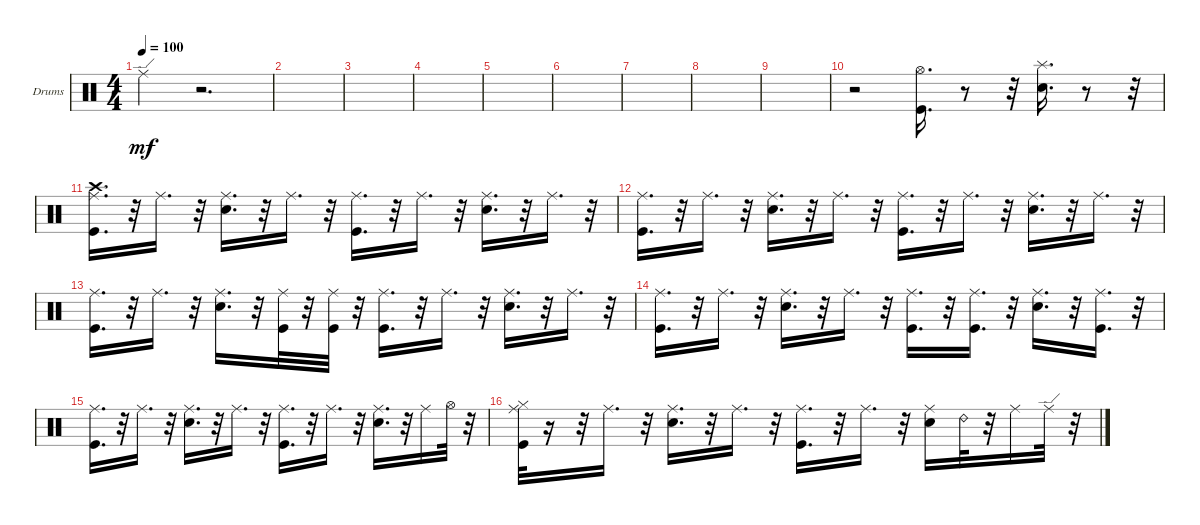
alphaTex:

\bracketExtendMode groupsimilarinstruments
\firstSystemTrackNameOrientation horizontal
\otherSystemsTrackNameOrientation horizontal
\track ("Drums" "Drums") {instrument percussion}
\staff {score}
\articulation defaults
\ts (4 4)
\tempo 100
\clef neutral
\ks c "Ride (edge)"{t}.4{dy mf}
r.2{d} |
|
|
|
|
|
|
|
|
r.2 ("Hi-Hat (open)" "Kick (hit)").16{d} r.8 r.32 ("Snare (hit) 2" "Splash (hit)").16{d} r.8 r.32 |
("Crash high (hit)" "Kick (hit)" "Ride (middle)").16{d} r.32 "Ride (middle)".16{d} r.32 ("Snare (hit) 2" "Ride (middle)").16{d} r.32 "Ride (middle)".16{d} r.32 ("Kick (hit)" "Ride (middle)").16{d} r.32 "Ride (middle)".16{d} r.32 ("Snare (hit) 2" "Ride (middle)").16{d} r.32 "Ride (middle)".16{d} r.32 |
("Kick (hit)" "Ride (middle)").16{d} r.32 "Ride (middle)".16{d} r.32 ("Snare (hit) 2" "Ride (middle)").16{d} r.32 "Ride (middle)".16{d} r.32 ("Kick (hit)" "Ride (middle)").16{d} r.32 "Ride (middle)".16{d} r.32 ("Snare (hit) 2" "Ride (middle)").16{d} r.32 "Ride (middle)".16{d} r.32 |
("Kick (hit)" "Ride (middle)").16{d} r.32 "Ride (middle)".16{d} r.32 ("Snare (hit) 2" "Ride (middle)").16{d} r.32 ("Ride (middle)" "Kick (hit)").32 r.32 ("Kick (hit)" "Ride (middle)").32 r.32 ("Kick (hit)" "Ride (middle)").16{d} r.32 "Ride (middle)".16{d} r.32 ("Snare (hit) 2" "Ride (middle)").16{d} r.32 "Ride (middle)".16{d} r.32 |
("Kick (hit)" "Ride (middle)").16{d} r.32 "Ride (middle)".16{d} r.32 ("Snare (hit) 2" "Ride (middle)").16{d} r.32 "Ride (middle)".16{d} r.32 ("Kick (hit)" "Ride (middle)").16{d} r.32 ("Kick (hit)" "Ride (middle)").16{d} r.32 ("Snare (hit) 2" "Ride (middle)").16{d} r.32 ("Kick (hit)" "Ride (middle)").16{d} r.32 |
("Kick (hit)" "Ride (middle)").16{d} r.32 "Ride (middle)".16{d} r.32 ("Snare (hit) 2" "Ride (middle)").16{d} r.32 "Ride (middle)".16{d} r.32 ("Kick (hit)" "Ride (middle)").16{d} r.32 "Ride (middle)".16{d} r.32 ("Snare (hit) 2" "Ride (middle)").16{d} r.32 "Ride (middle)".16 "Hi-Hat (open)".32 r.32 |
("Hi-Hat (closed)" "Kick (hit)" "Ride (middle)").32 r.16 r.32 "Ride (middle)".16{d} r.32 ("Snare (hit) 2" "Ride (middle)").16{d} r.32 "Ride (middle)".16{d} r.32 ("Kick (hit)" "Ride (middle)").16{d} r.32 "Ride (middle)".16{d} r.32 ("Snare (hit) 2" "Ride (middle)").16 "Ride (bell) 2".32 r.32 "Ride (middle)".16 "Ride (edge)".32 r.32
